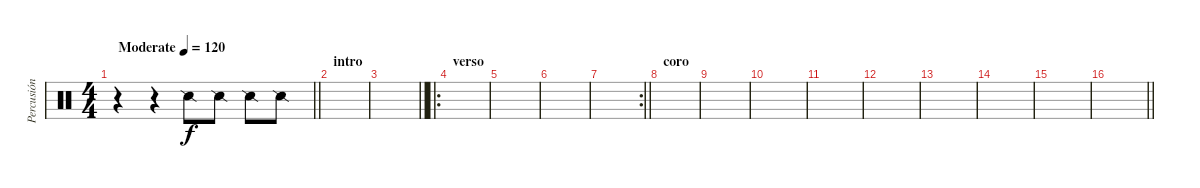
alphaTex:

\track ("Percusión" "Percusión") {instrument percussion}
\staff {score}
\articulation defaults
\ts (4 4)
\tempo (120 "Moderate")
\clef neutral
\barLineRight lightlight
\ks c
r.4{dy f} r.4 "Snare (side stick) 2".8 "Snare (side stick) 2".8 "Snare (side stick) 2".8 "Snare (side stick) 2".8 |
\section ("" "intro")
|
\barLineRight lightlight
|
\ro
\section ("" "verso")
|
|
|
\rc 2
\barLineRight lightlight
|
\section ("" "coro")
|
|
|
|
|
|
|
|
\barLineRight lightlight
